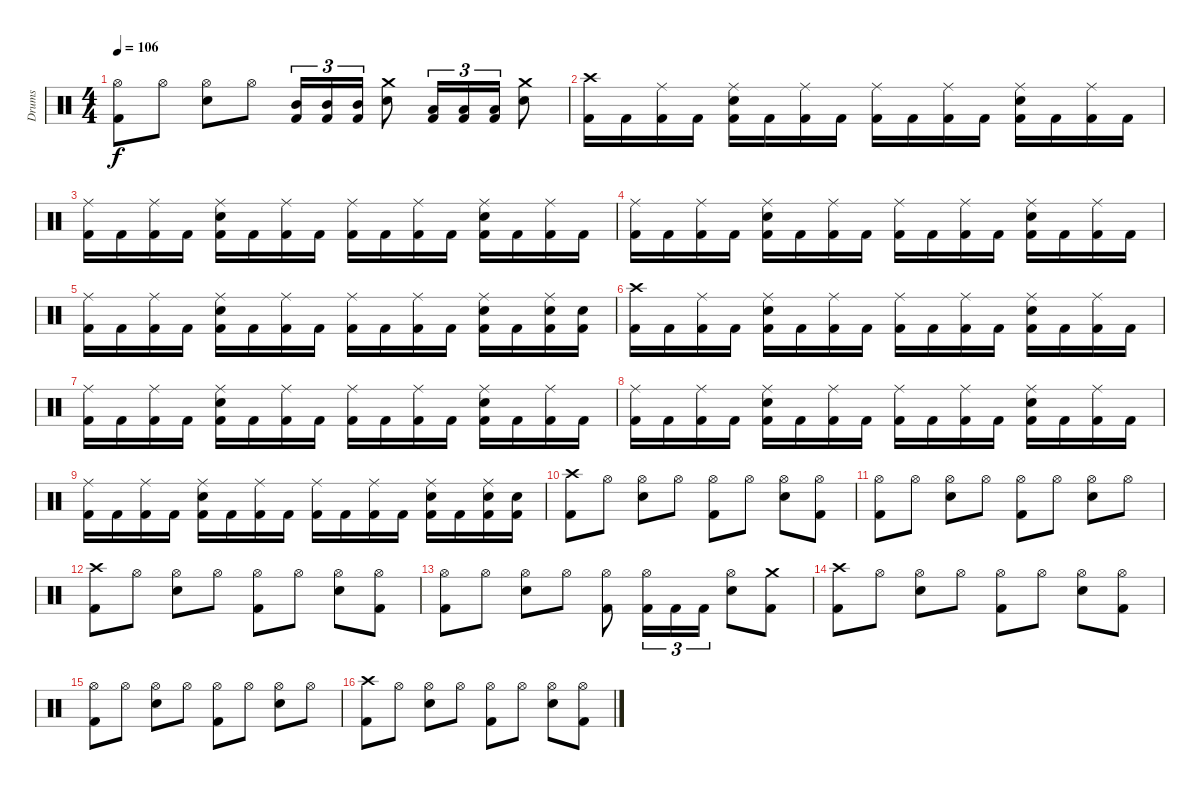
\track ("Drums" "Drums") {instrument percussion}
\staff {score}
\articulation defaults
\ts (4 4)
\tempo 106
\clef neutral
\ks c
("Hi-Hat (open)" "Kick (hit) 2").8{dy f} "Hi-Hat (open)".8 ("Hi-Hat (open)" "Electric Snare (hit)").8 "Hi-Hat (open)".8 ("Mid Tom (hit)" "Kick (hit) 2").16{tu (3 2)} ("Mid Tom (hit)" "Kick (hit) 2").16{tu (3 2)} ("Mid Tom (hit)" "Kick (hit) 2").16{tu (3 2)} ("Crash medium (hit)" "Electric Snare (hit)").8 ("Low Tom (hit)" "Kick (hit) 2").16{tu (3 2)} ("Low Tom (hit)" "Kick (hit) 2").16{tu (3 2)} ("Low Tom (hit)" "Kick (hit) 2").16{tu (3 2)} ("Crash medium (hit)" "Electric Snare (hit)").8 |
("Crash high (hit)" "Kick (hit) 2").16 "Kick (hit) 2".16 ("Ride (middle)" "Kick (hit) 2").16 "Kick (hit) 2".16 ("Ride (middle)" "Electric Snare (hit)" "Kick (hit) 2").16 "Kick (hit) 2".16 ("Ride (middle)" "Kick (hit) 2").16 "Kick (hit) 2".16 ("Ride (middle)" "Kick (hit) 2").16 "Kick (hit) 2".16 ("Ride (middle)" "Kick (hit) 2").16 "Kick (hit) 2".16 ("Ride (middle)" "Electric Snare (hit)" "Kick (hit) 2").16 "Kick (hit) 2".16 ("Ride (middle)" "Kick (hit) 2").16 "Kick (hit) 2".16 |
("Ride (middle)" "Kick (hit) 2").16 "Kick (hit) 2".16 ("Ride (middle)" "Kick (hit) 2").16 "Kick (hit) 2".16 ("Ride (middle)" "Electric Snare (hit)" "Kick (hit) 2").16 "Kick (hit) 2".16 ("Ride (middle)" "Kick (hit) 2").16 "Kick (hit) 2".16 ("Ride (middle)" "Kick (hit) 2").16 "Kick (hit) 2".16 ("Ride (middle)" "Kick (hit) 2").16 "Kick (hit) 2".16 ("Ride (middle)" "Electric Snare (hit)" "Kick (hit) 2").16 "Kick (hit) 2".16 ("Ride (middle)" "Kick (hit) 2").16 "Kick (hit) 2".16 |
("Ride (middle)" "Kick (hit) 2").16 "Kick (hit) 2".16 ("Ride (middle)" "Kick (hit) 2").16 "Kick (hit) 2".16 ("Ride (middle)" "Electric Snare (hit)" "Kick (hit) 2").16 "Kick (hit) 2".16 ("Ride (middle)" "Kick (hit) 2").16 "Kick (hit) 2".16 ("Ride (middle)" "Kick (hit) 2").16 "Kick (hit) 2".16 ("Ride (middle)" "Kick (hit) 2").16 "Kick (hit) 2".16 ("Ride (middle)" "Electric Snare (hit)" "Kick (hit) 2").16 "Kick (hit) 2".16 ("Ride (middle)" "Kick (hit) 2").16 "Kick (hit) 2".16 |
("Ride (middle)" "Kick (hit) 2").16 "Kick (hit) 2".16 ("Ride (middle)" "Kick (hit) 2").16 "Kick (hit) 2".16 ("Ride (middle)" "Electric Snare (hit)" "Kick (hit) 2").16 "Kick (hit) 2".16 ("Ride (middle)" "Kick (hit) 2").16 "Kick (hit) 2".16 ("Ride (middle)" "Kick (hit) 2").16 "Kick (hit) 2".16 ("Ride (middle)" "Kick (hit) 2").16 "Kick (hit) 2".16 ("Ride (middle)" "Electric Snare (hit)" "Kick (hit) 2").16 "Kick (hit) 2".16 ("Ride (middle)" "Electric Snare (hit)" "Kick (hit) 2").16 ("Electric Snare (hit)" "Kick (hit) 2").16 |
("Crash high (hit)" "Kick (hit) 2").16 "Kick (hit) 2".16 ("Ride (middle)" "Kick (hit) 2").16 "Kick (hit) 2".16 ("Ride (middle)" "Electric Snare (hit)" "Kick (hit) 2").16 "Kick (hit) 2".16 ("Ride (middle)" "Kick (hit) 2").16 "Kick (hit) 2".16 ("Ride (middle)" "Kick (hit) 2").16 "Kick (hit) 2".16 ("Ride (middle)" "Kick (hit) 2").16 "Kick (hit) 2".16 ("Ride (middle)" "Electric Snare (hit)" "Kick (hit) 2").16 "Kick (hit) 2".16 ("Ride (middle)" "Kick (hit) 2").16 "Kick (hit) 2".16 |
("Ride (middle)" "Kick (hit) 2").16 "Kick (hit) 2".16 ("Ride (middle)" "Kick (hit) 2").16 "Kick (hit) 2".16 ("Ride (middle)" "Electric Snare (hit)" "Kick (hit) 2").16 "Kick (hit) 2".16 ("Ride (middle)" "Kick (hit) 2").16 "Kick (hit) 2".16 ("Ride (middle)" "Kick (hit) 2").16 "Kick (hit) 2".16 ("Ride (middle)" "Kick (hit) 2").16 "Kick (hit) 2".16 ("Ride (middle)" "Electric Snare (hit)" "Kick (hit) 2").16 "Kick (hit) 2".16 ("Ride (middle)" "Kick (hit) 2").16 "Kick (hit) 2".16 |
("Ride (middle)" "Kick (hit) 2").16 "Kick (hit) 2".16 ("Ride (middle)" "Kick (hit) 2").16 "Kick (hit) 2".16 ("Ride (middle)" "Electric Snare (hit)" "Kick (hit) 2").16 "Kick (hit) 2".16 ("Ride (middle)" "Kick (hit) 2").16 "Kick (hit) 2".16 ("Ride (middle)" "Kick (hit) 2").16 "Kick (hit) 2".16 ("Ride (middle)" "Kick (hit) 2").16 "Kick (hit) 2".16 ("Ride (middle)" "Electric Snare (hit)" "Kick (hit) 2").16 "Kick (hit) 2".16 ("Ride (middle)" "Kick (hit) 2").16 "Kick (hit) 2".16 |
("Ride (middle)" "Kick (hit) 2").16 "Kick (hit) 2".16 ("Ride (middle)" "Kick (hit) 2").16 "Kick (hit) 2".16 ("Ride (middle)" "Electric Snare (hit)" "Kick (hit) 2").16 "Kick (hit) 2".16 ("Ride (middle)" "Kick (hit) 2").16 "Kick (hit) 2".16 ("Ride (middle)" "Kick (hit) 2").16 "Kick (hit) 2".16 ("Ride (middle)" "Kick (hit) 2").16 "Kick (hit) 2".16 ("Ride (middle)" "Electric Snare (hit)" "Kick (hit) 2").16 "Kick (hit) 2".16 ("Ride (middle)" "Electric Snare (hit)" "Kick (hit) 2").16 ("Electric Snare (hit)" "Kick (hit) 2").16 |
("Crash high (hit)" "Kick (hit) 2").8 "Hi-Hat (open)".8 ("Hi-Hat (open)" "Electric Snare (hit)").8 "Hi-Hat (open)".8 ("Hi-Hat (open)" "Kick (hit) 2").8 "Hi-Hat (open)".8 ("Hi-Hat (open)" "Electric Snare (hit)").8 ("Hi-Hat (open)" "Kick (hit) 2").8 |
("Hi-Hat (open)" "Kick (hit) 2").8 "Hi-Hat (open)".8 ("Hi-Hat (open)" "Electric Snare (hit)").8 "Hi-Hat (open)".8 ("Hi-Hat (open)" "Kick (hit) 2").8 "Hi-Hat (open)".8 ("Hi-Hat (open)" "Electric Snare (hit)").8 "Hi-Hat (open)".8 |
("Crash high (hit)" "Kick (hit) 2").8 "Hi-Hat (open)".8 ("Hi-Hat (open)" "Electric Snare (hit)").8 "Hi-Hat (open)".8 ("Hi-Hat (open)" "Kick (hit) 2").8 "Hi-Hat (open)".8 ("Hi-Hat (open)" "Electric Snare (hit)").8 ("Hi-Hat (open)" "Kick (hit) 2").8 |
("Hi-Hat (open)" "Kick (hit) 2").8 "Hi-Hat (open)".8 ("Hi-Hat (open)" "Electric Snare (hit)").8 "Hi-Hat (open)".8 ("Hi-Hat (open)" "Kick (hit) 2").8 ("Hi-Hat (open)" "Kick (hit) 2").16{tu (3 2)} "Kick (hit) 2".16{tu (3 2)} "Kick (hit) 2".16{tu (3 2)} ("Hi-Hat (open)" "Electric Snare (hit)").8 ("Crash medium (hit)" "Kick (hit) 2").8 |
("Crash high (hit)" "Kick (hit) 2").8 "Hi-Hat (open)".8 ("Hi-Hat (open)" "Electric Snare (hit)").8 "Hi-Hat (open)".8 ("Hi-Hat (open)" "Kick (hit) 2").8 "Hi-Hat (open)".8 ("Hi-Hat (open)" "Electric Snare (hit)").8 ("Hi-Hat (open)" "Kick (hit) 2").8 |
("Hi-Hat (open)" "Kick (hit) 2").8 "Hi-Hat (open)".8 ("Hi-Hat (open)" "Electric Snare (hit)").8 "Hi-Hat (open)".8 ("Hi-Hat (open)" "Kick (hit) 2").8 "Hi-Hat (open)".8 ("Hi-Hat (open)" "Electric Snare (hit)").8 "Hi-Hat (open)".8 |
("Crash high (hit)" "Kick (hit) 2").8 "Hi-Hat (open)".8 ("Hi-Hat (open)" "Electric Snare (hit)").8 "Hi-Hat (open)".8 ("Hi-Hat (open)" "Kick (hit) 2").8 "Hi-Hat (open)".8 ("Hi-Hat (open)" "Electric Snare (hit)").8 ("Hi-Hat (open)" "Kick (hit) 2").8
